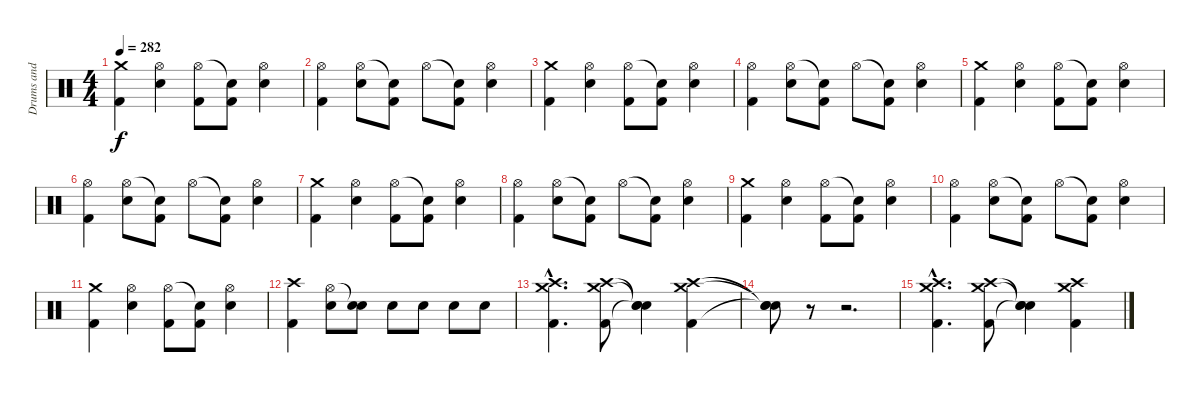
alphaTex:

\track ("Drums and Percussion" "Drums and ") {instrument percussion}
\staff {score}
\articulation defaults
\ts (4 4)
\tempo 282
\clef neutral
\ks c
("Crash medium (hit)" "Kick (hit) 2").4{dy f} ("Hi-Hat (open)" "Snare (hit) 2").4 ("Hi-Hat (open)" "Kick (hit) 2").8 ("Snare (hit)"{t} "Kick (hit) 2").8 ("Hi-Hat (open)" "Snare (hit) 2").4 |
("Hi-Hat (open)" "Kick (hit) 2").4 ("Hi-Hat (open)" "Snare (hit) 2").8 ("Snare (hit)"{t} "Kick (hit) 2").8 "Hi-Hat (open)".8 ("Snare (hit)"{t} "Kick (hit) 2").8 ("Hi-Hat (open)" "Snare (hit) 2").4 |
("Crash medium (hit)" "Kick (hit) 2").4 ("Hi-Hat (open)" "Snare (hit) 2").4 ("Hi-Hat (open)" "Kick (hit) 2").8 ("Snare (hit)"{t} "Kick (hit) 2").8 ("Hi-Hat (open)" "Snare (hit) 2").4 |
("Hi-Hat (open)" "Kick (hit) 2").4 ("Hi-Hat (open)" "Snare (hit) 2").8 ("Snare (hit)"{t} "Kick (hit) 2").8 "Hi-Hat (open)".8 ("Snare (hit)"{t} "Kick (hit) 2").8 ("Hi-Hat (open)" "Snare (hit) 2").4 |
("Crash medium (hit)" "Kick (hit) 2").4 ("Hi-Hat (open)" "Snare (hit) 2").4 ("Hi-Hat (open)" "Kick (hit) 2").8 ("Snare (hit)"{t} "Kick (hit) 2").8 ("Hi-Hat (open)" "Snare (hit) 2").4 |
("Hi-Hat (open)" "Kick (hit) 2").4 ("Hi-Hat (open)" "Snare (hit) 2").8 ("Snare (hit)"{t} "Kick (hit) 2").8 "Hi-Hat (open)".8 ("Snare (hit)"{t} "Kick (hit) 2").8 ("Hi-Hat (open)" "Snare (hit) 2").4 |
("Crash medium (hit)" "Kick (hit) 2").4 ("Hi-Hat (open)" "Snare (hit) 2").4 ("Hi-Hat (open)" "Kick (hit) 2").8 ("Snare (hit)"{t} "Kick (hit) 2").8 ("Hi-Hat (open)" "Snare (hit) 2").4 |
("Hi-Hat (open)" "Kick (hit) 2").4 ("Hi-Hat (open)" "Snare (hit) 2").8 ("Snare (hit)"{t} "Kick (hit) 2").8 "Hi-Hat (open)".8 ("Snare (hit)"{t} "Kick (hit) 2").8 ("Hi-Hat (open)" "Snare (hit) 2").4 |
("Crash medium (hit)" "Kick (hit) 2").4 ("Hi-Hat (open)" "Snare (hit) 2").4 ("Hi-Hat (open)" "Kick (hit) 2").8 ("Snare (hit)"{t} "Kick (hit) 2").8 ("Hi-Hat (open)" "Snare (hit) 2").4 |
("Hi-Hat (open)" "Kick (hit) 2").4 ("Hi-Hat (open)" "Snare (hit) 2").8 ("Snare (hit)"{t} "Kick (hit) 2").8 "Hi-Hat (open)".8 ("Snare (hit)"{t} "Kick (hit) 2").8 ("Hi-Hat (open)" "Snare (hit) 2").4 |
("Crash medium (hit)" "Kick (hit) 2").4 ("Hi-Hat (open)" "Snare (hit) 2").4 ("Hi-Hat (open)" "Kick (hit) 2").8 ("Snare (hit)"{t} "Kick (hit) 2").8 ("Hi-Hat (open)" "Snare (hit) 2").4 |
("Crash high (hit)" "Kick (hit) 2").4 ("Hi-Hat (open)" "Snare (hit) 2").8 ("Snare (hit)"{t} "Snare (hit) 2").8 "Snare (hit) 2".8 "Snare (hit) 2".8 "Snare (hit) 2".8 "Snare (hit) 2".8 |
("Crash medium (hit)"{hac} "Crash high (hit)"{hac} "Kick (hit) 2"{hac}).4{d} ("Crash medium (hit)" "Crash high (hit)" "Kick (hit) 2").8 ("Snare (hit)"{t} "Snare (hit)"{t} "Snare (hit)"{t}).4 ("Crash medium (hit)" "Crash high (hit)" "Kick (hit) 2").4 |
("Snare (hit)"{t} "Snare (hit)"{t} "Snare (hit)"{t}).8 r.8 r.2{d} |
("Crash medium (hit)"{hac} "Crash high (hit)"{hac} "Kick (hit) 2"{hac}).4{d} ("Crash medium (hit)" "Crash high (hit)" "Kick (hit) 2").8 ("Snare (hit)"{t} "Snare (hit)"{t} "Snare (hit)"{t}).4 ("Crash medium (hit)" "Crash high (hit)" "Kick (hit) 2").4
